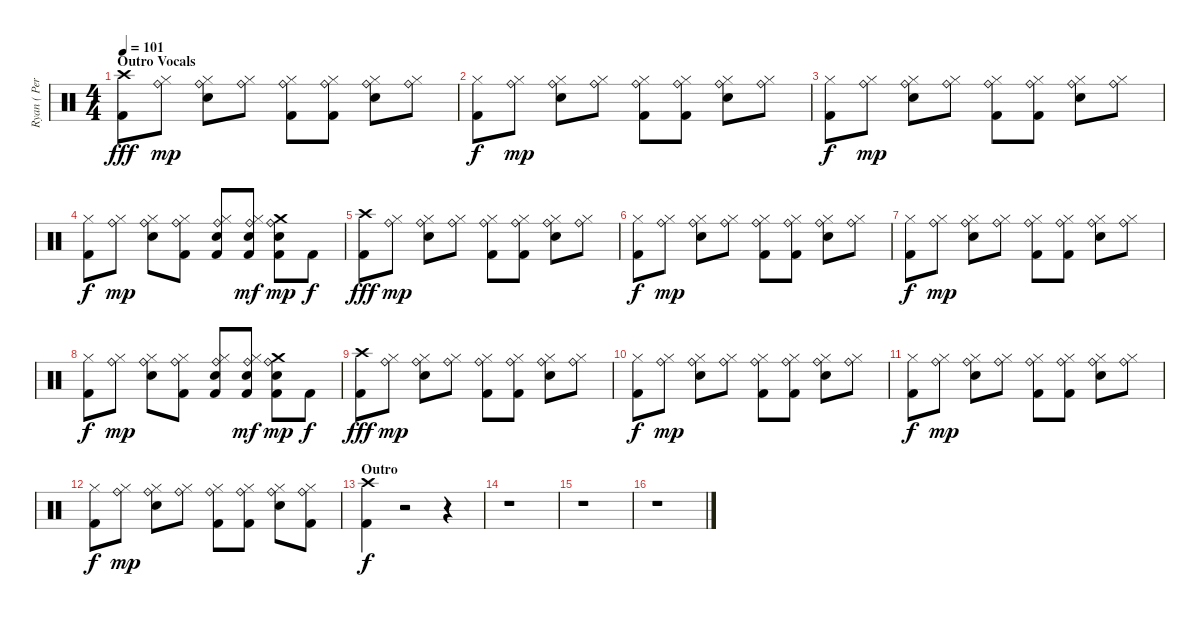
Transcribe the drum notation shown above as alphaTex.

\track ("Ryan ( Percussion )" "Ryan ( Per") {instrument percussion}
\staff {score}
\articulation defaults
\ts (4 4)
\section ("" "Outro Vocals")
\tempo 101
\clef neutral
\ks c
("Crash high (hit)" "Kick (hit) 2").8{dy fff} ("Hi-Hat (closed)" "Ride (bell)").8{dy mp} ("Hi-Hat (closed)" "Snare (hit) 2" "Ride (bell)").8 ("Hi-Hat (closed)" "Ride (bell)").8 ("Hi-Hat (closed)" "Kick (hit) 2" "Ride (bell)").8 ("Hi-Hat (closed)" "Kick (hit) 2" "Ride (bell)").8 ("Hi-Hat (closed)" "Snare (hit) 2" "Ride (bell)").8 ("Hi-Hat (closed)" "Ride (bell)").8 |
("Hi-Hat (closed)" "Kick (hit) 2").8{dy f} ("Hi-Hat (closed)" "Ride (bell)").8{dy mp} ("Hi-Hat (closed)" "Snare (hit) 2" "Ride (bell)").8 ("Hi-Hat (closed)" "Ride (bell)").8 ("Hi-Hat (closed)" "Kick (hit) 2" "Ride (bell)").8 ("Hi-Hat (closed)" "Kick (hit) 2" "Ride (bell)").8 ("Hi-Hat (closed)" "Snare (hit) 2" "Ride (bell)").8 ("Hi-Hat (closed)" "Ride (bell)").8 |
("Hi-Hat (closed)" "Kick (hit) 2").8{dy f} ("Hi-Hat (closed)" "Ride (bell)").8{dy mp} ("Hi-Hat (closed)" "Snare (hit) 2" "Ride (bell)").8 ("Hi-Hat (closed)" "Ride (bell)").8 ("Hi-Hat (closed)" "Kick (hit) 2" "Ride (bell)").8 ("Hi-Hat (closed)" "Kick (hit) 2" "Ride (bell)").8 ("Hi-Hat (closed)" "Snare (hit) 2" "Ride (bell)").8 ("Hi-Hat (closed)" "Ride (bell)").8 |
("Hi-Hat (closed)" "Kick (hit) 2").8{dy f} ("Hi-Hat (closed)" "Ride (bell)").8{dy mp} ("Hi-Hat (closed)" "Snare (hit) 2" "Ride (bell)").8 ("Hi-Hat (closed)" "Kick (hit) 2" "Ride (bell)").8 ("Hi-Hat (closed)" "Kick (hit) 2" "Snare (hit) 2" "Ride (bell)").8 ("Hi-Hat (closed)" "Kick (hit) 2" "Snare (hit) 2" "Ride (bell)").8{dy mf} ("Crash medium (hit)" "Kick (hit) 2" "Snare (hit) 2" "Ride (bell)").8{dy mp} "Kick (hit) 2".8{dy f} |
("Crash high (hit)" "Kick (hit) 2").8{dy fff} ("Hi-Hat (closed)" "Ride (bell)").8{dy mp} ("Hi-Hat (closed)" "Snare (hit) 2" "Ride (bell)").8 ("Hi-Hat (closed)" "Ride (bell)").8 ("Hi-Hat (closed)" "Kick (hit) 2" "Ride (bell)").8 ("Hi-Hat (closed)" "Kick (hit) 2" "Ride (bell)").8 ("Hi-Hat (closed)" "Snare (hit) 2" "Ride (bell)").8 ("Hi-Hat (closed)" "Ride (bell)").8 |
("Hi-Hat (closed)" "Kick (hit) 2").8{dy f} ("Hi-Hat (closed)" "Ride (bell)").8{dy mp} ("Hi-Hat (closed)" "Snare (hit) 2" "Ride (bell)").8 ("Hi-Hat (closed)" "Ride (bell)").8 ("Hi-Hat (closed)" "Kick (hit) 2" "Ride (bell)").8 ("Hi-Hat (closed)" "Kick (hit) 2" "Ride (bell)").8 ("Hi-Hat (closed)" "Snare (hit) 2" "Ride (bell)").8 ("Hi-Hat (closed)" "Ride (bell)").8 |
("Hi-Hat (closed)" "Kick (hit) 2").8{dy f} ("Hi-Hat (closed)" "Ride (bell)").8{dy mp} ("Hi-Hat (closed)" "Snare (hit) 2" "Ride (bell)").8 ("Hi-Hat (closed)" "Ride (bell)").8 ("Hi-Hat (closed)" "Kick (hit) 2" "Ride (bell)").8 ("Hi-Hat (closed)" "Kick (hit) 2" "Ride (bell)").8 ("Hi-Hat (closed)" "Snare (hit) 2" "Ride (bell)").8 ("Hi-Hat (closed)" "Ride (bell)").8 |
("Hi-Hat (closed)" "Kick (hit) 2").8{dy f} ("Hi-Hat (closed)" "Ride (bell)").8{dy mp} ("Hi-Hat (closed)" "Snare (hit) 2" "Ride (bell)").8 ("Hi-Hat (closed)" "Kick (hit) 2" "Ride (bell)").8 ("Hi-Hat (closed)" "Kick (hit) 2" "Snare (hit) 2" "Ride (bell)").8 ("Hi-Hat (closed)" "Kick (hit) 2" "Snare (hit) 2" "Ride (bell)").8{dy mf} ("Crash medium (hit)" "Kick (hit) 2" "Snare (hit) 2" "Ride (bell)").8{dy mp} "Kick (hit) 2".8{dy f} |
("Crash high (hit)" "Kick (hit) 2").8{dy fff} ("Hi-Hat (closed)" "Ride (bell)").8{dy mp} ("Hi-Hat (closed)" "Snare (hit) 2" "Ride (bell)").8 ("Hi-Hat (closed)" "Ride (bell)").8 ("Hi-Hat (closed)" "Kick (hit) 2" "Ride (bell)").8 ("Hi-Hat (closed)" "Kick (hit) 2" "Ride (bell)").8 ("Hi-Hat (closed)" "Snare (hit) 2" "Ride (bell)").8 ("Hi-Hat (closed)" "Ride (bell)").8 |
("Hi-Hat (closed)" "Kick (hit) 2").8{dy f} ("Hi-Hat (closed)" "Ride (bell)").8{dy mp} ("Hi-Hat (closed)" "Snare (hit) 2" "Ride (bell)").8 ("Hi-Hat (closed)" "Ride (bell)").8 ("Hi-Hat (closed)" "Kick (hit) 2" "Ride (bell)").8 ("Hi-Hat (closed)" "Kick (hit) 2" "Ride (bell)").8 ("Hi-Hat (closed)" "Snare (hit) 2" "Ride (bell)").8 ("Hi-Hat (closed)" "Ride (bell)").8 |
("Hi-Hat (closed)" "Kick (hit) 2").8{dy f} ("Hi-Hat (closed)" "Ride (bell)").8{dy mp} ("Hi-Hat (closed)" "Snare (hit) 2" "Ride (bell)").8 ("Hi-Hat (closed)" "Ride (bell)").8 ("Hi-Hat (closed)" "Kick (hit) 2" "Ride (bell)").8 ("Hi-Hat (closed)" "Kick (hit) 2" "Ride (bell)").8 ("Hi-Hat (closed)" "Snare (hit) 2" "Ride (bell)").8 ("Hi-Hat (closed)" "Ride (bell)").8 |
("Hi-Hat (closed)" "Kick (hit) 2").8{dy f} ("Hi-Hat (closed)" "Ride (bell)").8{dy mp} ("Hi-Hat (closed)" "Snare (hit) 2" "Ride (bell)").8 ("Hi-Hat (closed)" "Ride (bell)").8 ("Hi-Hat (closed)" "Kick (hit) 2" "Ride (bell)").8 ("Hi-Hat (closed)" "Kick (hit) 2" "Ride (bell)").8 ("Hi-Hat (closed)" "Snare (hit) 2" "Ride (bell)").8 ("Hi-Hat (closed)" "Kick (hit) 2" "Ride (bell)").8 |
\section ("" "Outro")
("Crash high (hit)" "Kick (hit) 2").4{dy f} r.2 r.4 |
r.1 |
r.1 |
r.1
